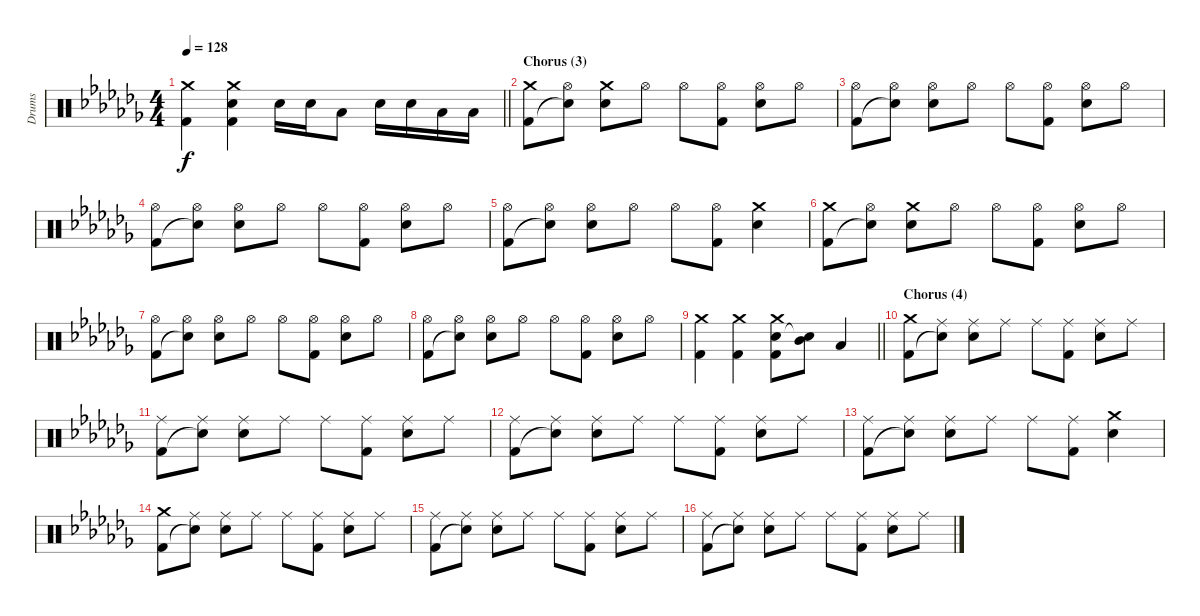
\track ("Drums" "Drums") {instrument percussion}
\staff {score}
\articulation defaults
\ts (4 4)
\tempo 128
\clef neutral
\barLineRight lightlight
\ks abminor
("Crash medium (hit)" "Kick (hit) 2").4{dy f} ("Crash medium (hit)" "Electric Snare (hit)" "Kick (hit) 2").4 "Electric Snare (hit)".16 "Electric Snare (hit)".16 "Low Floor Tom (hit)".8 "Electric Snare (hit)".16 "Electric Snare (hit)".16 "Low Floor Tom (hit)".16 "Low Floor Tom (hit)".16 |
\section ("" "Chorus (3)")
("Crash medium (hit)" "Kick (hit) 2").8 ("Hi-Hat (open)" "Snare (hit)"{t}).8 ("Crash medium (hit)" "Electric Snare (hit)").8 "Hi-Hat (open)".8 "Hi-Hat (open)".8 ("Hi-Hat (open)" "Kick (hit) 2").8 ("Hi-Hat (open)" "Electric Snare (hit)").8 "Hi-Hat (open)".8 |
("Hi-Hat (open)" "Kick (hit) 2").8 ("Hi-Hat (open)" "Snare (hit)"{t}).8 ("Hi-Hat (open)" "Electric Snare (hit)").8 "Hi-Hat (open)".8 "Hi-Hat (open)".8 ("Hi-Hat (open)" "Kick (hit) 2").8 ("Hi-Hat (open)" "Electric Snare (hit)").8 "Hi-Hat (open)".8 |
("Hi-Hat (open)" "Kick (hit) 2").8 ("Hi-Hat (open)" "Snare (hit)"{t}).8 ("Hi-Hat (open)" "Electric Snare (hit)").8 "Hi-Hat (open)".8 "Hi-Hat (open)".8 ("Hi-Hat (open)" "Kick (hit) 2").8 ("Hi-Hat (open)" "Electric Snare (hit)").8 "Hi-Hat (open)".8 |
("Hi-Hat (open)" "Kick (hit) 2").8 ("Hi-Hat (open)" "Snare (hit)"{t}).8 ("Hi-Hat (open)" "Electric Snare (hit)").8 "Hi-Hat (open)".8 "Hi-Hat (open)".8 ("Hi-Hat (open)" "Kick (hit) 2").8 ("Crash medium (hit)" "Electric Snare (hit)").4 |
("Crash medium (hit)" "Kick (hit) 2").8 ("Hi-Hat (open)" "Snare (hit)"{t}).8 ("Crash medium (hit)" "Electric Snare (hit)").8 "Hi-Hat (open)".8 "Hi-Hat (open)".8 ("Hi-Hat (open)" "Kick (hit) 2").8 ("Hi-Hat (open)" "Electric Snare (hit)").8 "Hi-Hat (open)".8 |
("Hi-Hat (open)" "Kick (hit) 2").8 ("Hi-Hat (open)" "Snare (hit)"{t}).8 ("Hi-Hat (open)" "Electric Snare (hit)").8 "Hi-Hat (open)".8 "Hi-Hat (open)".8 ("Hi-Hat (open)" "Kick (hit) 2").8 ("Hi-Hat (open)" "Electric Snare (hit)").8 "Hi-Hat (open)".8 |
("Hi-Hat (open)" "Kick (hit) 2").8 ("Hi-Hat (open)" "Snare (hit)"{t}).8 ("Hi-Hat (open)" "Electric Snare (hit)").8 "Hi-Hat (open)".8 "Hi-Hat (open)".8 ("Hi-Hat (open)" "Kick (hit) 2").8 ("Hi-Hat (open)" "Electric Snare (hit)").8 "Hi-Hat (open)".8 |
\barLineRight lightlight
("Crash medium (hit)" "Kick (hit) 2").4 ("Crash medium (hit)" "Kick (hit) 2").4 ("Crash medium (hit)" "Electric Snare (hit)" "Kick (hit) 2").8 ("Mid Tom (hit)" "Snare (hit)"{t}).8 "Low Floor Tom (hit)".4 |
\section ("" "Chorus (4)")
("Crash medium (hit)" "Kick (hit) 2").8 ("Ride (middle)" "Snare (hit)"{t}).8 ("Ride (middle)" "Electric Snare (hit)").8 "Ride (middle)".8 "Ride (middle)".8 ("Ride (middle)" "Kick (hit) 2").8 ("Ride (middle)" "Electric Snare (hit)").8 "Ride (middle)".8 |
("Ride (middle)" "Kick (hit) 2").8 ("Ride (middle)" "Snare (hit)"{t}).8 ("Ride (middle)" "Electric Snare (hit)").8 "Ride (middle)".8 "Ride (middle)".8 ("Ride (middle)" "Kick (hit) 2").8 ("Ride (middle)" "Electric Snare (hit)").8 "Ride (middle)".8 |
("Ride (middle)" "Kick (hit) 2").8 ("Ride (middle)" "Snare (hit)"{t}).8 ("Ride (middle)" "Electric Snare (hit)").8 "Ride (middle)".8 "Ride (middle)".8 ("Ride (middle)" "Kick (hit) 2").8 ("Ride (middle)" "Electric Snare (hit)").8 "Ride (middle)".8 |
("Ride (middle)" "Kick (hit) 2").8 ("Ride (middle)" "Snare (hit)"{t}).8 ("Ride (middle)" "Electric Snare (hit)").8 "Ride (middle)".8 "Ride (middle)".8 ("Ride (middle)" "Kick (hit) 2").8 ("Crash medium (hit)" "Electric Snare (hit)").4 |
("Crash medium (hit)" "Kick (hit) 2").8 ("Ride (middle)" "Snare (hit)"{t}).8 ("Ride (middle)" "Electric Snare (hit)").8 "Ride (middle)".8 "Ride (middle)".8 ("Ride (middle)" "Kick (hit) 2").8 ("Ride (middle)" "Electric Snare (hit)").8 "Ride (middle)".8 |
("Ride (middle)" "Kick (hit) 2").8 ("Ride (middle)" "Snare (hit)"{t}).8 ("Ride (middle)" "Electric Snare (hit)").8 "Ride (middle)".8 "Ride (middle)".8 ("Ride (middle)" "Kick (hit) 2").8 ("Ride (middle)" "Electric Snare (hit)").8 "Ride (middle)".8 |
("Ride (middle)" "Kick (hit) 2").8 ("Ride (middle)" "Snare (hit)"{t}).8 ("Ride (middle)" "Electric Snare (hit)").8 "Ride (middle)".8 "Ride (middle)".8 ("Ride (middle)" "Kick (hit) 2").8 ("Ride (middle)" "Electric Snare (hit)").8 "Ride (middle)".8
